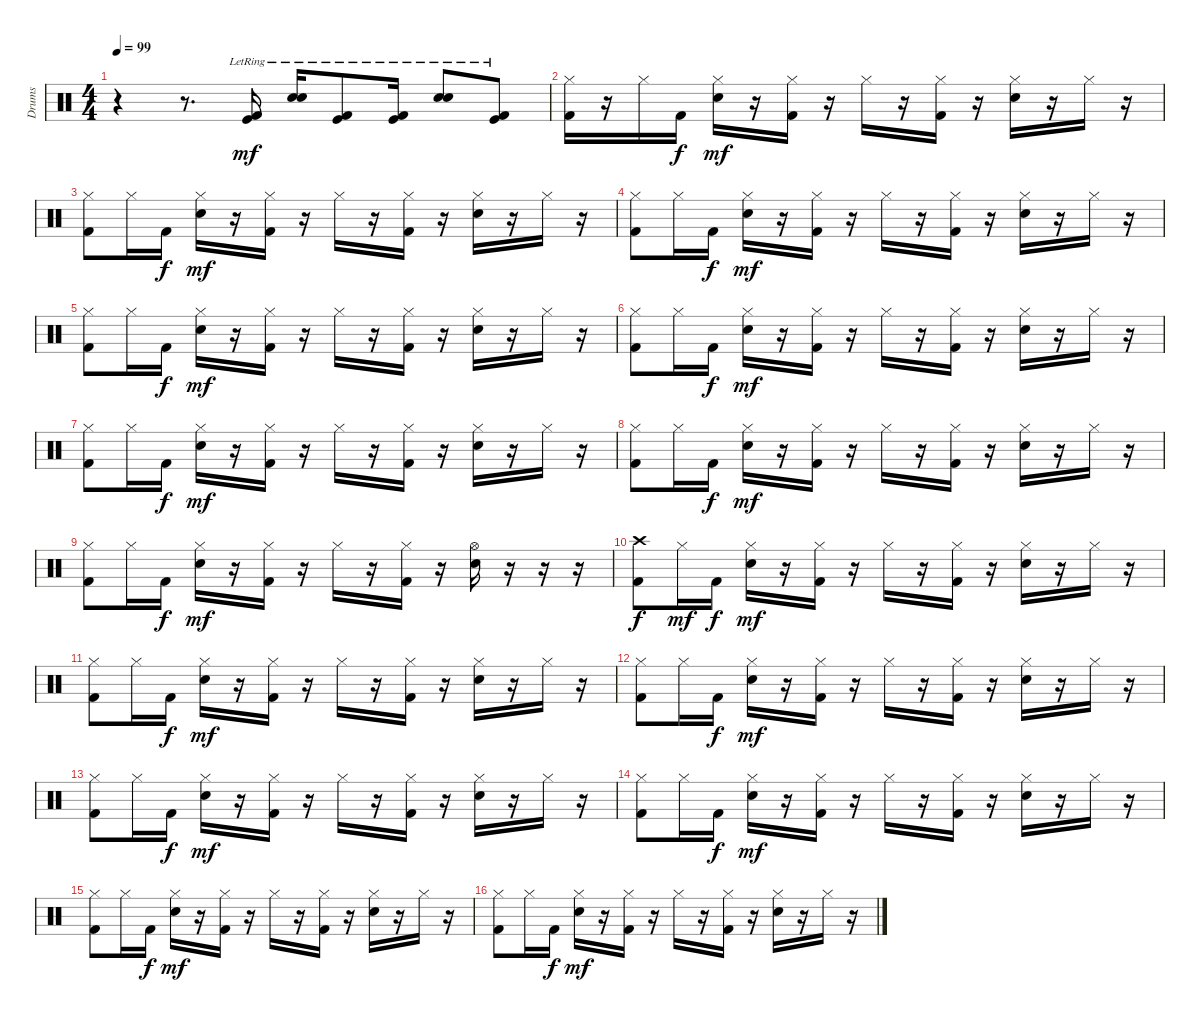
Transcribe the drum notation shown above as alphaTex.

\track ("Drums" "Drums") {instrument percussion}
\staff {score}
\articulation defaults
\ts (4 4)
\tempo 99
\clef neutral
\ks c
r.4{dy mf} r.8{d} ("Kick (hit) 2"{lr} "Kick (hit)"{lr}).16 ("Snare (hit) 2"{lr} "Electric Snare (hit)"{lr}).16 ("Kick (hit) 2"{lr} "Kick (hit)"{lr}).8 ("Kick (hit) 2"{lr} "Kick (hit)"{lr}).16 ("Snare (hit) 2"{lr} "Electric Snare (hit)"{lr}).8 ("Kick (hit) 2"{lr} "Kick (hit)"{lr}).8 |
("Hi-Hat (closed)" "Kick (hit) 2").16 r.16 "Hi-Hat (closed)".16 "Kick (hit) 2".16{dy f} ("Hi-Hat (closed)" "Snare (hit) 2").16{dy mf} r.16 ("Hi-Hat (closed)" "Kick (hit) 2").16 r.16 "Hi-Hat (closed)".16 r.16 ("Hi-Hat (closed)" "Kick (hit) 2").16 r.16 ("Hi-Hat (closed)" "Snare (hit) 2").16 r.16 "Hi-Hat (closed)".16 r.16 |
("Hi-Hat (closed)" "Kick (hit) 2").8 "Hi-Hat (closed)".16 "Kick (hit) 2".16{dy f} ("Hi-Hat (closed)" "Snare (hit) 2").16{dy mf} r.16 ("Hi-Hat (closed)" "Kick (hit) 2").16 r.16 "Hi-Hat (closed)".16 r.16 ("Hi-Hat (closed)" "Kick (hit) 2").16 r.16 ("Hi-Hat (closed)" "Snare (hit) 2").16 r.16 "Hi-Hat (closed)".16 r.16 |
("Hi-Hat (closed)" "Kick (hit) 2").8 "Hi-Hat (closed)".16 "Kick (hit) 2".16{dy f} ("Hi-Hat (closed)" "Snare (hit) 2").16{dy mf} r.16 ("Hi-Hat (closed)" "Kick (hit) 2").16 r.16 "Hi-Hat (closed)".16 r.16 ("Hi-Hat (closed)" "Kick (hit) 2").16 r.16 ("Hi-Hat (closed)" "Snare (hit) 2").16 r.16 "Hi-Hat (closed)".16 r.16 |
("Hi-Hat (closed)" "Kick (hit) 2").8 "Hi-Hat (closed)".16 "Kick (hit) 2".16{dy f} ("Hi-Hat (closed)" "Snare (hit) 2").16{dy mf} r.16 ("Hi-Hat (closed)" "Kick (hit) 2").16 r.16 "Hi-Hat (closed)".16 r.16 ("Hi-Hat (closed)" "Kick (hit) 2").16 r.16 ("Hi-Hat (closed)" "Snare (hit) 2").16 r.16 "Hi-Hat (closed)".16 r.16 |
("Hi-Hat (closed)" "Kick (hit) 2").8 "Hi-Hat (closed)".16 "Kick (hit) 2".16{dy f} ("Hi-Hat (closed)" "Snare (hit) 2").16{dy mf} r.16 ("Hi-Hat (closed)" "Kick (hit) 2").16 r.16 "Hi-Hat (closed)".16 r.16 ("Hi-Hat (closed)" "Kick (hit) 2").16 r.16 ("Hi-Hat (closed)" "Snare (hit) 2").16 r.16 "Hi-Hat (closed)".16 r.16 |
("Hi-Hat (closed)" "Kick (hit) 2").8 "Hi-Hat (closed)".16 "Kick (hit) 2".16{dy f} ("Hi-Hat (closed)" "Snare (hit) 2").16{dy mf} r.16 ("Hi-Hat (closed)" "Kick (hit) 2").16 r.16 "Hi-Hat (closed)".16 r.16 ("Hi-Hat (closed)" "Kick (hit) 2").16 r.16 ("Hi-Hat (closed)" "Snare (hit) 2").16 r.16 "Hi-Hat (closed)".16 r.16 |
("Hi-Hat (closed)" "Kick (hit) 2").8 "Hi-Hat (closed)".16 "Kick (hit) 2".16{dy f} ("Hi-Hat (closed)" "Snare (hit) 2").16{dy mf} r.16 ("Hi-Hat (closed)" "Kick (hit) 2").16 r.16 "Hi-Hat (closed)".16 r.16 ("Hi-Hat (closed)" "Kick (hit) 2").16 r.16 ("Hi-Hat (closed)" "Snare (hit) 2").16 r.16 "Hi-Hat (closed)".16 r.16 |
("Hi-Hat (closed)" "Kick (hit) 2").8 "Hi-Hat (closed)".16 "Kick (hit) 2".16{dy f} ("Hi-Hat (closed)" "Snare (hit) 2").16{dy mf} r.16 ("Hi-Hat (closed)" "Kick (hit) 2").16 r.16 "Hi-Hat (closed)".16 r.16 ("Hi-Hat (closed)" "Kick (hit) 2").16 r.16 ("Hi-Hat (open)" "Snare (hit) 2").16 r.16 r.16 r.16 |
("Crash high (hit)" "Kick (hit) 2").8{dy f} "Hi-Hat (closed)".16{dy mf} "Kick (hit) 2".16{dy f} ("Hi-Hat (closed)" "Snare (hit) 2").16{dy mf} r.16 ("Hi-Hat (closed)" "Kick (hit) 2").16 r.16 "Hi-Hat (closed)".16 r.16 ("Hi-Hat (closed)" "Kick (hit) 2").16 r.16 ("Hi-Hat (closed)" "Snare (hit) 2").16 r.16 "Hi-Hat (closed)".16 r.16 |
("Hi-Hat (closed)" "Kick (hit) 2").8 "Hi-Hat (closed)".16 "Kick (hit) 2".16{dy f} ("Hi-Hat (closed)" "Snare (hit) 2").16{dy mf} r.16 ("Hi-Hat (closed)" "Kick (hit) 2").16 r.16 "Hi-Hat (closed)".16 r.16 ("Hi-Hat (closed)" "Kick (hit) 2").16 r.16 ("Hi-Hat (closed)" "Snare (hit) 2").16 r.16 "Hi-Hat (closed)".16 r.16 |
("Hi-Hat (closed)" "Kick (hit) 2").8 "Hi-Hat (closed)".16 "Kick (hit) 2".16{dy f} ("Hi-Hat (closed)" "Snare (hit) 2").16{dy mf} r.16 ("Hi-Hat (closed)" "Kick (hit) 2").16 r.16 "Hi-Hat (closed)".16 r.16 ("Hi-Hat (closed)" "Kick (hit) 2").16 r.16 ("Hi-Hat (closed)" "Snare (hit) 2").16 r.16 "Hi-Hat (closed)".16 r.16 |
("Hi-Hat (closed)" "Kick (hit) 2").8 "Hi-Hat (closed)".16 "Kick (hit) 2".16{dy f} ("Hi-Hat (closed)" "Snare (hit) 2").16{dy mf} r.16 ("Hi-Hat (closed)" "Kick (hit) 2").16 r.16 "Hi-Hat (closed)".16 r.16 ("Hi-Hat (closed)" "Kick (hit) 2").16 r.16 ("Hi-Hat (closed)" "Snare (hit) 2").16 r.16 "Hi-Hat (closed)".16 r.16 |
("Hi-Hat (closed)" "Kick (hit) 2").8 "Hi-Hat (closed)".16 "Kick (hit) 2".16{dy f} ("Hi-Hat (closed)" "Snare (hit) 2").16{dy mf} r.16 ("Hi-Hat (closed)" "Kick (hit) 2").16 r.16 "Hi-Hat (closed)".16 r.16 ("Hi-Hat (closed)" "Kick (hit) 2").16 r.16 ("Hi-Hat (closed)" "Snare (hit) 2").16 r.16 "Hi-Hat (closed)".16 r.16 |
("Hi-Hat (closed)" "Kick (hit) 2").8 "Hi-Hat (closed)".16 "Kick (hit) 2".16{dy f} ("Hi-Hat (closed)" "Snare (hit) 2").16{dy mf} r.16 ("Hi-Hat (closed)" "Kick (hit) 2").16 r.16 "Hi-Hat (closed)".16 r.16 ("Hi-Hat (closed)" "Kick (hit) 2").16 r.16 ("Hi-Hat (closed)" "Snare (hit) 2").16 r.16 "Hi-Hat (closed)".16 r.16 |
("Hi-Hat (closed)" "Kick (hit) 2").8 "Hi-Hat (closed)".16 "Kick (hit) 2".16{dy f} ("Hi-Hat (closed)" "Snare (hit) 2").16{dy mf} r.16 ("Hi-Hat (closed)" "Kick (hit) 2").16 r.16 "Hi-Hat (closed)".16 r.16 ("Hi-Hat (closed)" "Kick (hit) 2").16 r.16 ("Hi-Hat (closed)" "Snare (hit) 2").16 r.16 "Hi-Hat (closed)".16 r.16
